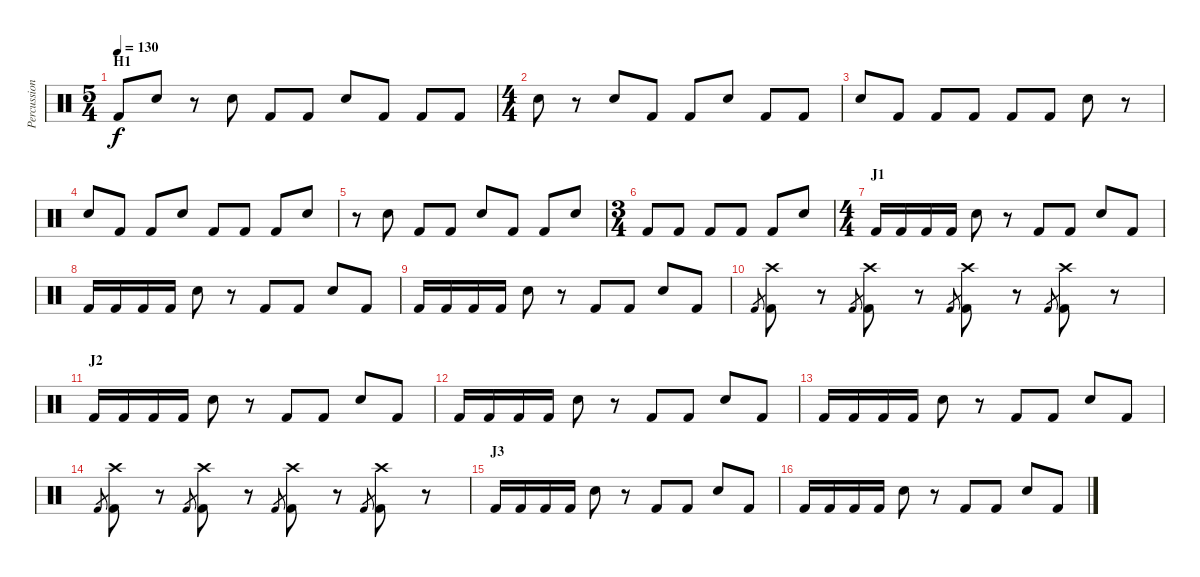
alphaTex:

\track ("Percussion" "Percussion") {instrument percussion}
\staff {score}
\articulation defaults
\ts (5 4)
\section ("" "H1")
\tempo 130
\clef neutral
\ks c "Kick (hit) 2".8{dy f} "Electric Snare (hit)".8
r.8 "Electric Snare (hit)".8 "Kick (hit) 2".8 "Kick (hit) 2".8 "Electric Snare (hit)".8 "Kick (hit) 2".8 "Kick (hit) 2".8 "Kick (hit) 2".8 |
\ts (4 4)
"Electric Snare (hit)".8 r.8 "Electric Snare (hit)".8 "Kick (hit) 2".8 "Kick (hit) 2".8 "Electric Snare (hit)".8 "Kick (hit) 2".8 "Kick (hit) 2".8 |
"Electric Snare (hit)".8 "Kick (hit) 2".8 "Kick (hit) 2".8 "Kick (hit) 2".8 "Kick (hit) 2".8 "Kick (hit) 2".8 "Electric Snare (hit)".8 r.8 |
"Electric Snare (hit)".8 "Kick (hit) 2".8 "Kick (hit) 2".8 "Electric Snare (hit)".8 "Kick (hit) 2".8 "Kick (hit) 2".8 "Kick (hit) 2".8 "Electric Snare (hit)".8 |
r.8 "Electric Snare (hit)".8 "Kick (hit) 2".8 "Kick (hit) 2".8 "Electric Snare (hit)".8 "Kick (hit) 2".8 "Kick (hit) 2".8 "Electric Snare (hit)".8 |
\ts (3 4)
"Kick (hit) 2".8 "Kick (hit) 2".8 "Kick (hit) 2".8 "Kick (hit) 2".8 "Kick (hit) 2".8 "Electric Snare (hit)".8 |
\ts (4 4)
\section ("" "J1")
"Kick (hit) 2".16 "Kick (hit) 2".16 "Kick (hit) 2".16 "Kick (hit) 2".16 "Electric Snare (hit)".8 r.8 "Kick (hit) 2".8 "Kick (hit) 2".8 "Electric Snare (hit)".8 "Kick (hit) 2".8 |
"Kick (hit) 2".16 "Kick (hit) 2".16 "Kick (hit) 2".16 "Kick (hit) 2".16 "Electric Snare (hit)".8 r.8 "Kick (hit) 2".8 "Kick (hit) 2".8 "Electric Snare (hit)".8 "Kick (hit) 2".8 |
"Kick (hit) 2".16 "Kick (hit) 2".16 "Kick (hit) 2".16 "Kick (hit) 2".16 "Electric Snare (hit)".8 r.8 "Kick (hit) 2".8 "Kick (hit) 2".8 "Electric Snare (hit)".8 "Kick (hit) 2".8 |
"Kick (hit) 2".8{gr} ("Kick (hit) 2" "Crash high (hit)").8 r.8 "Kick (hit) 2".8{gr} ("Kick (hit) 2" "Crash high (hit)").8 r.8 "Kick (hit) 2".8{gr} ("Kick (hit) 2" "Crash high (hit)").8 r.8 "Kick (hit) 2".8{gr} ("Kick (hit) 2" "Crash high (hit)").8 r.8 |
\section ("" "J2")
"Kick (hit) 2".16 "Kick (hit) 2".16 "Kick (hit) 2".16 "Kick (hit) 2".16 "Electric Snare (hit)".8 r.8 "Kick (hit) 2".8 "Kick (hit) 2".8 "Electric Snare (hit)".8 "Kick (hit) 2".8 |
"Kick (hit) 2".16 "Kick (hit) 2".16 "Kick (hit) 2".16 "Kick (hit) 2".16 "Electric Snare (hit)".8 r.8 "Kick (hit) 2".8 "Kick (hit) 2".8 "Electric Snare (hit)".8 "Kick (hit) 2".8 |
"Kick (hit) 2".16 "Kick (hit) 2".16 "Kick (hit) 2".16 "Kick (hit) 2".16 "Electric Snare (hit)".8 r.8 "Kick (hit) 2".8 "Kick (hit) 2".8 "Electric Snare (hit)".8 "Kick (hit) 2".8 |
"Kick (hit) 2".8{gr} ("Kick (hit) 2" "Crash high (hit)").8 r.8 "Kick (hit) 2".8{gr} ("Kick (hit) 2" "Crash high (hit)").8 r.8 "Kick (hit) 2".8{gr} ("Kick (hit) 2" "Crash high (hit)").8 r.8 "Kick (hit) 2".8{gr} ("Kick (hit) 2" "Crash high (hit)").8 r.8 |
\section ("" "J3")
"Kick (hit) 2".16 "Kick (hit) 2".16 "Kick (hit) 2".16 "Kick (hit) 2".16 "Electric Snare (hit)".8 r.8 "Kick (hit) 2".8 "Kick (hit) 2".8 "Electric Snare (hit)".8 "Kick (hit) 2".8 |
"Kick (hit) 2".16 "Kick (hit) 2".16 "Kick (hit) 2".16 "Kick (hit) 2".16 "Electric Snare (hit)".8 r.8 "Kick (hit) 2".8 "Kick (hit) 2".8 "Electric Snare (hit)".8 "Kick (hit) 2".8
